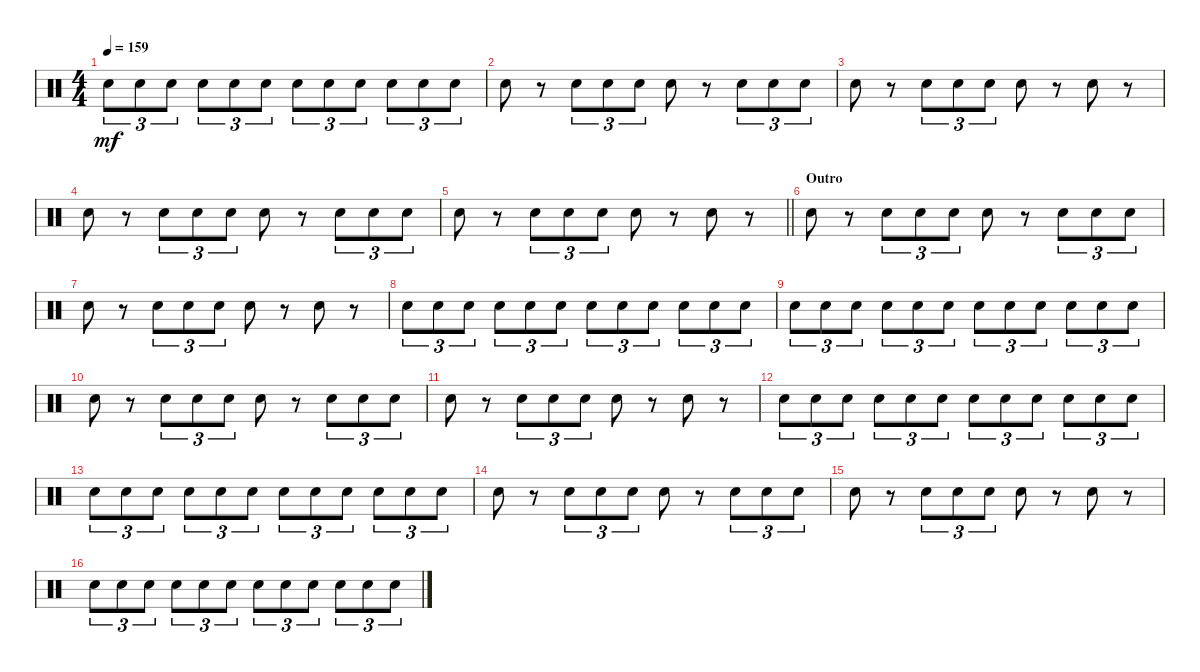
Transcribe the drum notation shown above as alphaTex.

\track "" {instrument percussion}
\staff {score}
\articulation defaults
\ts (4 4)
\tempo 159
\clef neutral
\ks c "Electric Snare (hit)".8{tu (3 2) dy mf} "Electric Snare (hit)".8{tu (3 2)} "Electric Snare (hit)".8{tu (3 2)} "Electric Snare (hit)".8{tu (3 2)} "Electric Snare (hit)".8{tu (3 2)} "Electric Snare (hit)".8{tu (3 2)} "Electric Snare (hit)".8{tu (3 2)} "Electric Snare (hit)".8{tu (3 2)} "Electric Snare (hit)".8{tu (3 2)} "Electric Snare (hit)".8{tu (3 2)} "Electric Snare (hit)".8{tu (3 2)} "Electric Snare (hit)".8{tu (3 2)}
|
"Electric Snare (hit)".8 r.8 "Electric Snare (hit)".8{tu (3 2)} "Electric Snare (hit)".8{tu (3 2)} "Electric Snare (hit)".8{tu (3 2)} "Electric Snare (hit)".8 r.8 "Electric Snare (hit)".8{tu (3 2)} "Electric Snare (hit)".8{tu (3 2)} "Electric Snare (hit)".8{tu (3 2)} |
"Electric Snare (hit)".8 r.8 "Electric Snare (hit)".8{tu (3 2)} "Electric Snare (hit)".8{tu (3 2)} "Electric Snare (hit)".8{tu (3 2)} "Electric Snare (hit)".8 r.8 "Electric Snare (hit)".8 r.8 |
"Electric Snare (hit)".8 r.8 "Electric Snare (hit)".8{tu (3 2)} "Electric Snare (hit)".8{tu (3 2)} "Electric Snare (hit)".8{tu (3 2)} "Electric Snare (hit)".8 r.8 "Electric Snare (hit)".8{tu (3 2)} "Electric Snare (hit)".8{tu (3 2)} "Electric Snare (hit)".8{tu (3 2)} |
\barLineRight lightlight "Electric Snare (hit)".8
r.8 "Electric Snare (hit)".8{tu (3 2)} "Electric Snare (hit)".8{tu (3 2)} "Electric Snare (hit)".8{tu (3 2)} "Electric Snare (hit)".8 r.8 "Electric Snare (hit)".8 r.8 |
\section ("" "Outro")
"Electric Snare (hit)".8 r.8 "Electric Snare (hit)".8{tu (3 2)} "Electric Snare (hit)".8{tu (3 2)} "Electric Snare (hit)".8{tu (3 2)} "Electric Snare (hit)".8 r.8 "Electric Snare (hit)".8{tu (3 2)} "Electric Snare (hit)".8{tu (3 2)} "Electric Snare (hit)".8{tu (3 2)} |
"Electric Snare (hit)".8 r.8 "Electric Snare (hit)".8{tu (3 2)} "Electric Snare (hit)".8{tu (3 2)} "Electric Snare (hit)".8{tu (3 2)} "Electric Snare (hit)".8 r.8 "Electric Snare (hit)".8 r.8 |
"Electric Snare (hit)".8{tu (3 2)} "Electric Snare (hit)".8{tu (3 2)} "Electric Snare (hit)".8{tu (3 2)} "Electric Snare (hit)".8{tu (3 2)} "Electric Snare (hit)".8{tu (3 2)} "Electric Snare (hit)".8{tu (3 2)} "Electric Snare (hit)".8{tu (3 2)} "Electric Snare (hit)".8{tu (3 2)} "Electric Snare (hit)".8{tu (3 2)} "Electric Snare (hit)".8{tu (3 2)} "Electric Snare (hit)".8{tu (3 2)} "Electric Snare (hit)".8{tu (3 2)} |
"Electric Snare (hit)".8{tu (3 2)} "Electric Snare (hit)".8{tu (3 2)} "Electric Snare (hit)".8{tu (3 2)} "Electric Snare (hit)".8{tu (3 2)} "Electric Snare (hit)".8{tu (3 2)} "Electric Snare (hit)".8{tu (3 2)} "Electric Snare (hit)".8{tu (3 2)} "Electric Snare (hit)".8{tu (3 2)} "Electric Snare (hit)".8{tu (3 2)} "Electric Snare (hit)".8{tu (3 2)} "Electric Snare (hit)".8{tu (3 2)} "Electric Snare (hit)".8{tu (3 2)} |
"Electric Snare (hit)".8 r.8 "Electric Snare (hit)".8{tu (3 2)} "Electric Snare (hit)".8{tu (3 2)} "Electric Snare (hit)".8{tu (3 2)} "Electric Snare (hit)".8 r.8 "Electric Snare (hit)".8{tu (3 2)} "Electric Snare (hit)".8{tu (3 2)} "Electric Snare (hit)".8{tu (3 2)} |
"Electric Snare (hit)".8 r.8 "Electric Snare (hit)".8{tu (3 2)} "Electric Snare (hit)".8{tu (3 2)} "Electric Snare (hit)".8{tu (3 2)} "Electric Snare (hit)".8 r.8 "Electric Snare (hit)".8 r.8 |
"Electric Snare (hit)".8{tu (3 2)} "Electric Snare (hit)".8{tu (3 2)} "Electric Snare (hit)".8{tu (3 2)} "Electric Snare (hit)".8{tu (3 2)} "Electric Snare (hit)".8{tu (3 2)} "Electric Snare (hit)".8{tu (3 2)} "Electric Snare (hit)".8{tu (3 2)} "Electric Snare (hit)".8{tu (3 2)} "Electric Snare (hit)".8{tu (3 2)} "Electric Snare (hit)".8{tu (3 2)} "Electric Snare (hit)".8{tu (3 2)} "Electric Snare (hit)".8{tu (3 2)} |
"Electric Snare (hit)".8{tu (3 2)} "Electric Snare (hit)".8{tu (3 2)} "Electric Snare (hit)".8{tu (3 2)} "Electric Snare (hit)".8{tu (3 2)} "Electric Snare (hit)".8{tu (3 2)} "Electric Snare (hit)".8{tu (3 2)} "Electric Snare (hit)".8{tu (3 2)} "Electric Snare (hit)".8{tu (3 2)} "Electric Snare (hit)".8{tu (3 2)} "Electric Snare (hit)".8{tu (3 2)} "Electric Snare (hit)".8{tu (3 2)} "Electric Snare (hit)".8{tu (3 2)} |
"Electric Snare (hit)".8 r.8 "Electric Snare (hit)".8{tu (3 2)} "Electric Snare (hit)".8{tu (3 2)} "Electric Snare (hit)".8{tu (3 2)} "Electric Snare (hit)".8 r.8 "Electric Snare (hit)".8{tu (3 2)} "Electric Snare (hit)".8{tu (3 2)} "Electric Snare (hit)".8{tu (3 2)} |
"Electric Snare (hit)".8 r.8 "Electric Snare (hit)".8{tu (3 2)} "Electric Snare (hit)".8{tu (3 2)} "Electric Snare (hit)".8{tu (3 2)} "Electric Snare (hit)".8 r.8 "Electric Snare (hit)".8 r.8 |
"Electric Snare (hit)".8{tu (3 2)} "Electric Snare (hit)".8{tu (3 2)} "Electric Snare (hit)".8{tu (3 2)} "Electric Snare (hit)".8{tu (3 2)} "Electric Snare (hit)".8{tu (3 2)} "Electric Snare (hit)".8{tu (3 2)} "Electric Snare (hit)".8{tu (3 2)} "Electric Snare (hit)".8{tu (3 2)} "Electric Snare (hit)".8{tu (3 2)} "Electric Snare (hit)".8{tu (3 2)} "Electric Snare (hit)".8{tu (3 2)} "Electric Snare (hit)".8{tu (3 2)}
